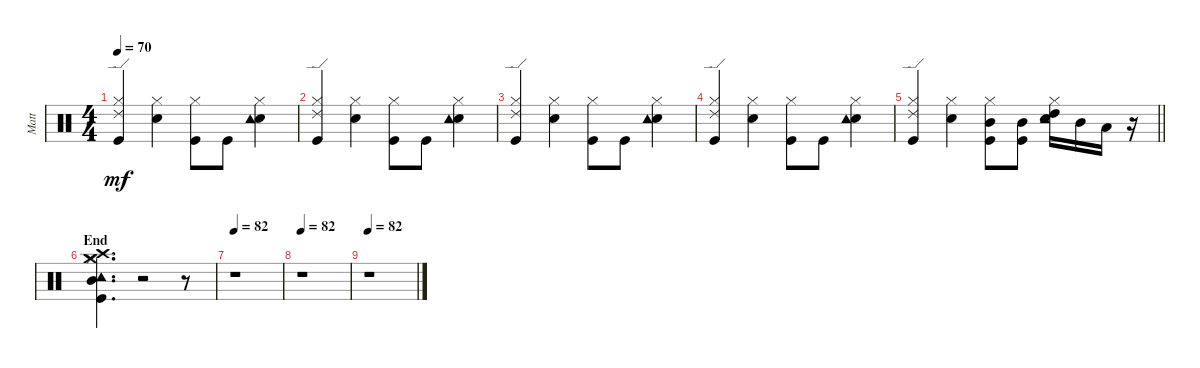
\track ("Matt" "Matt") {instrument percussion}
\staff {score}
\articulation defaults
\ts (4 4)
\tempo 70
\clef neutral
\ks c
("Ride (edge) 2" "Hi-Hat (closed)" "Kick (hit)").4{dy mf} ("Hi-Hat (closed)" "Electric Snare (hit)").4 ("Hi-Hat (closed)" "Kick (hit)").8 "Kick (hit)".8 ("Electric Snare (hit)" "Tambourine (hit)" "Hi-Hat (closed)").4 |
("Ride (edge) 2" "Hi-Hat (closed)" "Kick (hit)").4 ("Hi-Hat (closed)" "Electric Snare (hit)").4 ("Hi-Hat (closed)" "Kick (hit)").8 "Kick (hit)".8 ("Electric Snare (hit)" "Tambourine (hit)" "Hi-Hat (closed)").4 |
("Ride (edge) 2" "Hi-Hat (closed)" "Kick (hit)").4 ("Hi-Hat (closed)" "Electric Snare (hit)").4 ("Hi-Hat (closed)" "Kick (hit)").8 "Kick (hit)".8 ("Electric Snare (hit)" "Tambourine (hit)" "Hi-Hat (closed)").4 |
("Ride (edge) 2" "Hi-Hat (closed)" "Kick (hit)").4 ("Hi-Hat (closed)" "Electric Snare (hit)").4 ("Hi-Hat (closed)" "Kick (hit)").8 "Kick (hit)".8 ("Electric Snare (hit)" "Tambourine (hit)" "Hi-Hat (closed)").4 |
\barLineRight lightlight
("Ride (edge) 2" "Hi-Hat (closed)" "Kick (hit)").4 ("Hi-Hat (closed)" "Electric Snare (hit)").4 ("Mid Tom (hit)" "Hi-Hat (closed)" "Kick (hit)").8 ("Mid Tom (hit)" "Kick (hit)").8 ("Electric Snare (hit)" "High Tom (hit)" "Tambourine (hit)" "Hi-Hat (closed)").16 "Mid Tom (hit)".16 "Low Tom (hit)".16 r.16 |
\section ("" "End")
("Mid Tom (hit)" "Crash high (hit)" "Crash medium (hit)" "Tambourine (hit)" "Hi-Hat (closed)" "Kick (hit)").4{d} r.2 r.8 |
\tempo 82
r.1 |
\tempo 82
r.1 |
\tempo 82
r.1
